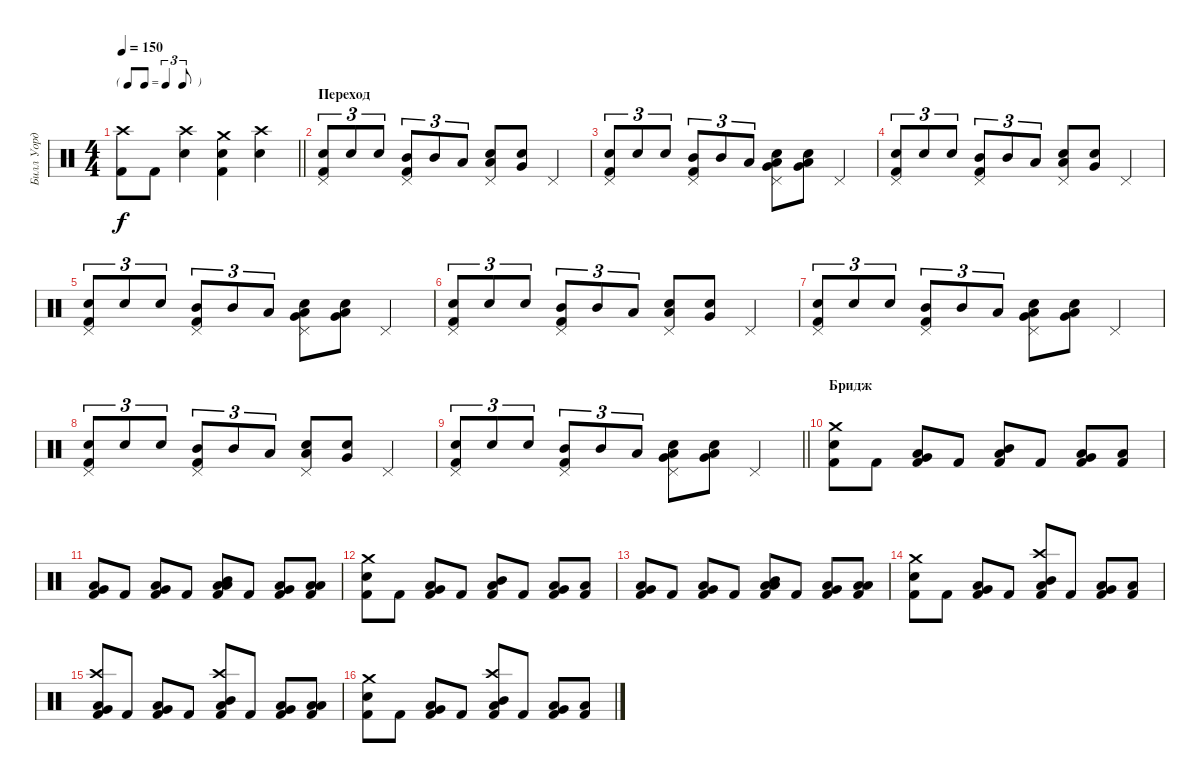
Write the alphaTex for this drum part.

\track ("Билл Уорд" "Билл Уорд") {instrument percussion}
\staff {score}
\articulation defaults
\ts (4 4)
\tf triplet8th
\tempo 150
\clef neutral
\barLineRight lightlight
\ks c
("Kick (hit) 2" "Crash high (hit)").8{dy f} "Kick (hit) 2".8 ("Snare (hit) 2" "Crash high (hit)").4 ("Snare (hit) 2" "Kick (hit) 2" "Crash medium (hit)").4 ("Snare (hit) 2" "Crash high (hit)").4 |
\section ("" "Переход")
("Snare (hit) 2" "Kick (hit) 2" "Pedal Hi-Hat (hit)").8{tu (3 2)} "Snare (hit) 2".8{tu (3 2)} "Snare (hit) 2".8{tu (3 2)} ("Mid Tom (hit)" "Kick (hit) 2" "Pedal Hi-Hat (hit)").8{tu (3 2)} "Mid Tom (hit)".8{tu (3 2)} "Low Tom (hit)".8{tu (3 2)} ("Snare (hit) 2" "Low Tom (hit)" "Pedal Hi-Hat (hit)").8 ("Snare (hit) 2" "Very Low Tom (hit)").8 "Pedal Hi-Hat (hit)".4 |
("Snare (hit) 2" "Kick (hit) 2" "Pedal Hi-Hat (hit)").8{tu (3 2)} "Snare (hit) 2".8{tu (3 2)} "Snare (hit) 2".8{tu (3 2)} ("Mid Tom (hit)" "Kick (hit) 2" "Pedal Hi-Hat (hit)").8{tu (3 2)} "Mid Tom (hit)".8{tu (3 2)} "Low Tom (hit)".8{tu (3 2)} ("Snare (hit) 2" "Very Low Tom (hit)" "Low Floor Tom (hit)" "Pedal Hi-Hat (hit)").8 ("Snare (hit) 2" "Very Low Tom (hit)" "Low Floor Tom (hit)").8 "Pedal Hi-Hat (hit)".4 |
("Snare (hit) 2" "Kick (hit) 2" "Pedal Hi-Hat (hit)").8{tu (3 2)} "Snare (hit) 2".8{tu (3 2)} "Snare (hit) 2".8{tu (3 2)} ("Mid Tom (hit)" "Kick (hit) 2" "Pedal Hi-Hat (hit)").8{tu (3 2)} "Mid Tom (hit)".8{tu (3 2)} "Low Tom (hit)".8{tu (3 2)} ("Snare (hit) 2" "Low Tom (hit)" "Pedal Hi-Hat (hit)").8 ("Snare (hit) 2" "Very Low Tom (hit)").8 "Pedal Hi-Hat (hit)".4 |
("Snare (hit) 2" "Kick (hit) 2" "Pedal Hi-Hat (hit)").8{tu (3 2)} "Snare (hit) 2".8{tu (3 2)} "Snare (hit) 2".8{tu (3 2)} ("Mid Tom (hit)" "Kick (hit) 2" "Pedal Hi-Hat (hit)").8{tu (3 2)} "Mid Tom (hit)".8{tu (3 2)} "Low Tom (hit)".8{tu (3 2)} ("Snare (hit) 2" "Very Low Tom (hit)" "Low Floor Tom (hit)" "Pedal Hi-Hat (hit)").8 ("Snare (hit) 2" "Very Low Tom (hit)" "Low Floor Tom (hit)").8 "Pedal Hi-Hat (hit)".4 |
("Snare (hit) 2" "Kick (hit) 2" "Pedal Hi-Hat (hit)").8{tu (3 2)} "Snare (hit) 2".8{tu (3 2)} "Snare (hit) 2".8{tu (3 2)} ("Mid Tom (hit)" "Kick (hit) 2" "Pedal Hi-Hat (hit)").8{tu (3 2)} "Mid Tom (hit)".8{tu (3 2)} "Low Tom (hit)".8{tu (3 2)} ("Snare (hit) 2" "Low Tom (hit)" "Pedal Hi-Hat (hit)").8 ("Snare (hit) 2" "Very Low Tom (hit)").8 "Pedal Hi-Hat (hit)".4 |
("Snare (hit) 2" "Kick (hit) 2" "Pedal Hi-Hat (hit)").8{tu (3 2)} "Snare (hit) 2".8{tu (3 2)} "Snare (hit) 2".8{tu (3 2)} ("Mid Tom (hit)" "Kick (hit) 2" "Pedal Hi-Hat (hit)").8{tu (3 2)} "Mid Tom (hit)".8{tu (3 2)} "Low Tom (hit)".8{tu (3 2)} ("Snare (hit) 2" "Very Low Tom (hit)" "Low Floor Tom (hit)" "Pedal Hi-Hat (hit)").8 ("Snare (hit) 2" "Very Low Tom (hit)" "Low Floor Tom (hit)").8 "Pedal Hi-Hat (hit)".4 |
("Snare (hit) 2" "Kick (hit) 2" "Pedal Hi-Hat (hit)").8{tu (3 2)} "Snare (hit) 2".8{tu (3 2)} "Snare (hit) 2".8{tu (3 2)} ("Mid Tom (hit)" "Kick (hit) 2" "Pedal Hi-Hat (hit)").8{tu (3 2)} "Mid Tom (hit)".8{tu (3 2)} "Low Tom (hit)".8{tu (3 2)} ("Snare (hit) 2" "Low Tom (hit)" "Pedal Hi-Hat (hit)").8 ("Snare (hit) 2" "Very Low Tom (hit)").8 "Pedal Hi-Hat (hit)".4 |
\barLineRight lightlight
("Snare (hit) 2" "Kick (hit) 2" "Pedal Hi-Hat (hit)").8{tu (3 2)} "Snare (hit) 2".8{tu (3 2)} "Snare (hit) 2".8{tu (3 2)} ("Mid Tom (hit)" "Kick (hit) 2" "Pedal Hi-Hat (hit)").8{tu (3 2)} "Mid Tom (hit)".8{tu (3 2)} "Low Tom (hit)".8{tu (3 2)} ("Snare (hit) 2" "Very Low Tom (hit)" "Low Floor Tom (hit)" "Pedal Hi-Hat (hit)").8 ("Snare (hit) 2" "Very Low Tom (hit)" "Low Floor Tom (hit)").8 "Pedal Hi-Hat (hit)".4 |
\section ("" "Бридж")
("Crash medium (hit)" "Kick (hit) 2" "Snare (hit) 2").8 "Kick (hit) 2".8 ("Low Floor Tom (hit)" "Kick (hit) 2" "Very Low Tom (hit)").8 "Kick (hit) 2".8 ("Low Tom (hit)" "Kick (hit) 2" "Mid Tom (hit)").8 "Kick (hit) 2".8 ("Low Floor Tom (hit)" "Kick (hit) 2" "Very Low Tom (hit)").8 ("Low Floor Tom (hit)" "Kick (hit) 2").8 |
("Kick (hit) 2" "Low Floor Tom (hit)" "Very Low Tom (hit)").8 "Kick (hit) 2".8 ("Kick (hit) 2" "Low Floor Tom (hit)" "Very Low Tom (hit)").8 "Kick (hit) 2".8 ("Kick (hit) 2" "Low Tom (hit)" "Mid Tom (hit)" "Low Tom (hit)").8 "Kick (hit) 2".8 ("Kick (hit) 2" "Very Low Tom (hit)" "Low Tom (hit)").8 ("Kick (hit) 2" "Low Floor Tom (hit)" "Low Tom (hit)").8 |
("Crash medium (hit)" "Kick (hit) 2" "Snare (hit) 2").8 "Kick (hit) 2".8 ("Low Floor Tom (hit)" "Kick (hit) 2" "Very Low Tom (hit)").8 "Kick (hit) 2".8 ("Low Tom (hit)" "Kick (hit) 2" "Mid Tom (hit)").8 "Kick (hit) 2".8 ("Low Floor Tom (hit)" "Kick (hit) 2" "Very Low Tom (hit)").8 ("Low Floor Tom (hit)" "Kick (hit) 2").8 |
("Kick (hit) 2" "Low Floor Tom (hit)" "Very Low Tom (hit)").8 "Kick (hit) 2".8 ("Kick (hit) 2" "Low Floor Tom (hit)" "Very Low Tom (hit)").8 "Kick (hit) 2".8 ("Kick (hit) 2" "Low Tom (hit)" "Mid Tom (hit)" "Low Tom (hit)").8 "Kick (hit) 2".8 ("Kick (hit) 2" "Very Low Tom (hit)" "Low Tom (hit)").8 ("Kick (hit) 2" "Low Floor Tom (hit)" "Low Tom (hit)").8 |
("Crash medium (hit)" "Kick (hit) 2" "Snare (hit) 2").8 "Kick (hit) 2".8 ("Low Floor Tom (hit)" "Kick (hit) 2" "Very Low Tom (hit)").8 "Kick (hit) 2".8 ("Low Tom (hit)" "Kick (hit) 2" "Mid Tom (hit)" "Crash high (hit)").8 "Kick (hit) 2".8 ("Low Floor Tom (hit)" "Kick (hit) 2" "Very Low Tom (hit)").8 ("Low Floor Tom (hit)" "Kick (hit) 2").8 |
("Kick (hit) 2" "Low Floor Tom (hit)" "Very Low Tom (hit)" "Crash high (hit)").8 "Kick (hit) 2".8 ("Kick (hit) 2" "Low Floor Tom (hit)" "Very Low Tom (hit)").8 "Kick (hit) 2".8 ("Kick (hit) 2" "Low Tom (hit)" "Mid Tom (hit)" "Crash high (hit)").8 "Kick (hit) 2".8 ("Kick (hit) 2" "Very Low Tom (hit)" "Low Tom (hit)").8 ("Kick (hit) 2" "Low Floor Tom (hit)" "Low Tom (hit)").8 |
("Crash medium (hit)" "Kick (hit) 2" "Snare (hit) 2").8 "Kick (hit) 2".8 ("Low Floor Tom (hit)" "Kick (hit) 2" "Very Low Tom (hit)").8 "Kick (hit) 2".8 ("Low Tom (hit)" "Kick (hit) 2" "Mid Tom (hit)" "Crash high (hit)").8 "Kick (hit) 2".8 ("Low Floor Tom (hit)" "Kick (hit) 2" "Very Low Tom (hit)").8 ("Low Floor Tom (hit)" "Kick (hit) 2").8
